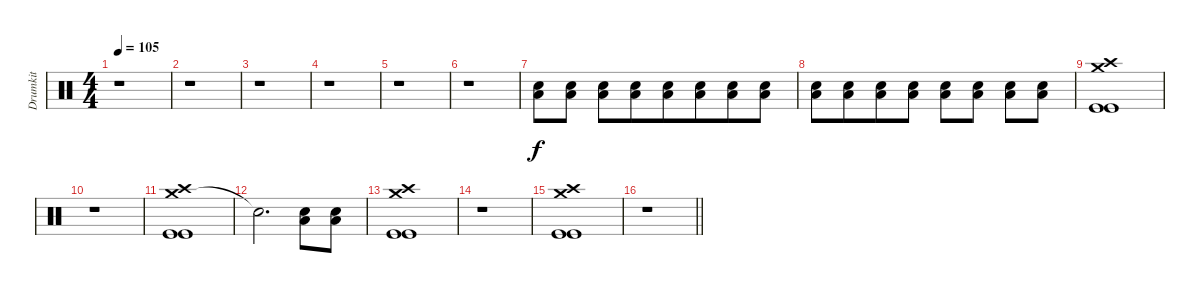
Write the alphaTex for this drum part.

\track ("Drumkit" "Drumkit") {instrument percussion}
\staff {score}
\articulation defaults
\ts (4 4)
\tempo 105
\clef neutral
\ks c
r.1{dy f} |
r.1 |
r.1 |
r.1 |
r.1 |
r.1 |
("Low Floor Tom (hit)" "Electric Snare (hit)").8{volume 2 beam merge} ("Low Floor Tom (hit)" "Electric Snare (hit)").8{volume 8} ("Low Floor Tom (hit)" "Electric Snare (hit)").8 ("Low Floor Tom (hit)" "Electric Snare (hit)").8{beam merge} ("Low Floor Tom (hit)" "Electric Snare (hit)").8 ("Low Floor Tom (hit)" "Electric Snare (hit)").8{beam merge} ("Low Floor Tom (hit)" "Electric Snare (hit)").8{beam merge} ("Low Floor Tom (hit)" "Electric Snare (hit)").8 |
("Low Floor Tom (hit)" "Electric Snare (hit)").8 ("Low Floor Tom (hit)" "Electric Snare (hit)").8{beam merge} ("Low Floor Tom (hit)" "Electric Snare (hit)").8{volume 13 beam merge} ("Low Floor Tom (hit)" "Electric Snare (hit)").8 ("Low Floor Tom (hit)" "Electric Snare (hit)").8{beam merge} ("Low Floor Tom (hit)" "Electric Snare (hit)").8 ("Low Floor Tom (hit)" "Electric Snare (hit)").8{beam merge} ("Low Floor Tom (hit)" "Electric Snare (hit)").8 |
("Crash medium (hit)" "Crash high (hit)" "Kick (hit)" "Kick (hit)").1 |
r.1 |
("Crash medium (hit)" "Crash high (hit)" "Kick (hit)" "Kick (hit)").1 |
"Snare (hit)"{t}.2{d beam merge} ("Low Floor Tom (hit)" "Electric Snare (hit)").8{beam merge} ("Low Floor Tom (hit)" "Electric Snare (hit)").8 |
("Crash medium (hit)" "Crash high (hit)" "Kick (hit)" "Kick (hit)").1 |
r.1 |
("Crash medium (hit)" "Crash high (hit)" "Kick (hit)" "Kick (hit)").1 |
\barLineRight lightlight
r.1
